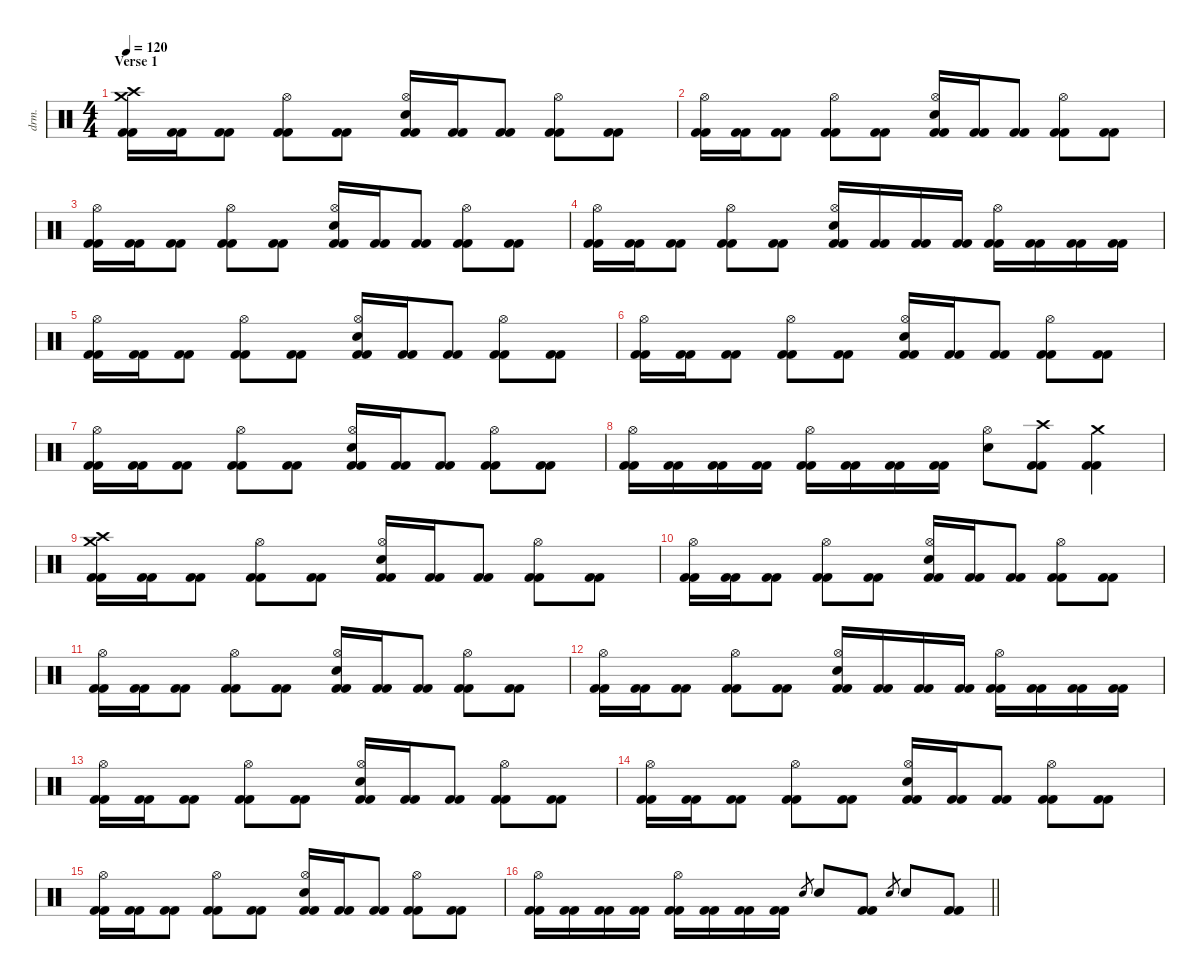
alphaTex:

\defaultSystemsLayout 4
\hideDynamics
\bracketExtendMode nobrackets
\otherSystemsTrackNameOrientation horizontal
\track ("Chris Adler" "drm.") {instrument percussion}
\staff {score}
\articulation defaults
\ts (4 4)
\section ("" "Verse 1")
\tempo 120
\clef neutral
\ks c
("Crash medium (hit)" "Crash high (hit)" "Kick (hit) 2" "Kick (hit) 2").16{dy f} ("Kick (hit) 2" "Kick (hit) 2").16 ("Kick (hit) 2" "Kick (hit) 2").8 ("Hi-Hat (open)" "Kick (hit) 2" "Kick (hit) 2").8 ("Kick (hit) 2" "Kick (hit) 2").8 ("Hi-Hat (open)" "Snare (hit) 2" "Kick (hit) 2" "Kick (hit) 2").16 ("Kick (hit) 2" "Kick (hit) 2").16 ("Kick (hit) 2" "Kick (hit) 2").8 ("Hi-Hat (open)" "Kick (hit) 2" "Kick (hit) 2").8 ("Kick (hit) 2" "Kick (hit) 2").8 |
("Hi-Hat (open)" "Kick (hit) 2" "Kick (hit) 2").16 ("Kick (hit) 2" "Kick (hit) 2").16 ("Kick (hit) 2" "Kick (hit) 2").8 ("Hi-Hat (open)" "Kick (hit) 2" "Kick (hit) 2").8 ("Kick (hit) 2" "Kick (hit) 2").8 ("Hi-Hat (open)" "Snare (hit) 2" "Kick (hit) 2" "Kick (hit) 2").16 ("Kick (hit) 2" "Kick (hit) 2").16 ("Kick (hit) 2" "Kick (hit) 2").8 ("Hi-Hat (open)" "Kick (hit) 2" "Kick (hit) 2").8 ("Kick (hit) 2" "Kick (hit) 2").8 |
("Hi-Hat (open)" "Kick (hit) 2" "Kick (hit) 2").16 ("Kick (hit) 2" "Kick (hit) 2").16 ("Kick (hit) 2" "Kick (hit) 2").8 ("Hi-Hat (open)" "Kick (hit) 2" "Kick (hit) 2").8 ("Kick (hit) 2" "Kick (hit) 2").8 ("Hi-Hat (open)" "Snare (hit) 2" "Kick (hit) 2" "Kick (hit) 2").16 ("Kick (hit) 2" "Kick (hit) 2").16 ("Kick (hit) 2" "Kick (hit) 2").8 ("Hi-Hat (open)" "Kick (hit) 2" "Kick (hit) 2").8 ("Kick (hit) 2" "Kick (hit) 2").8 |
("Hi-Hat (open)" "Kick (hit) 2" "Kick (hit) 2").16 ("Kick (hit) 2" "Kick (hit) 2").16 ("Kick (hit) 2" "Kick (hit) 2").8 ("Hi-Hat (open)" "Kick (hit) 2" "Kick (hit) 2").8 ("Kick (hit) 2" "Kick (hit) 2").8 ("Hi-Hat (open)" "Snare (hit) 2" "Kick (hit) 2" "Kick (hit) 2").16 ("Kick (hit) 2" "Kick (hit) 2").16 ("Kick (hit) 2" "Kick (hit) 2").16 ("Kick (hit) 2" "Kick (hit) 2").16 ("Hi-Hat (open)" "Kick (hit) 2" "Kick (hit) 2").16 ("Kick (hit) 2" "Kick (hit) 2").16 ("Kick (hit) 2" "Kick (hit) 2").16 ("Kick (hit) 2" "Kick (hit) 2").16 |
("Hi-Hat (open)" "Kick (hit) 2" "Kick (hit) 2").16 ("Kick (hit) 2" "Kick (hit) 2").16 ("Kick (hit) 2" "Kick (hit) 2").8 ("Hi-Hat (open)" "Kick (hit) 2" "Kick (hit) 2").8 ("Kick (hit) 2" "Kick (hit) 2").8 ("Hi-Hat (open)" "Snare (hit) 2" "Kick (hit) 2" "Kick (hit) 2").16 ("Kick (hit) 2" "Kick (hit) 2").16 ("Kick (hit) 2" "Kick (hit) 2").8 ("Hi-Hat (open)" "Kick (hit) 2" "Kick (hit) 2").8 ("Kick (hit) 2" "Kick (hit) 2").8 |
("Hi-Hat (open)" "Kick (hit) 2" "Kick (hit) 2").16 ("Kick (hit) 2" "Kick (hit) 2").16 ("Kick (hit) 2" "Kick (hit) 2").8 ("Hi-Hat (open)" "Kick (hit) 2" "Kick (hit) 2").8 ("Kick (hit) 2" "Kick (hit) 2").8 ("Hi-Hat (open)" "Snare (hit) 2" "Kick (hit) 2" "Kick (hit) 2").16 ("Kick (hit) 2" "Kick (hit) 2").16 ("Kick (hit) 2" "Kick (hit) 2").8 ("Hi-Hat (open)" "Kick (hit) 2" "Kick (hit) 2").8 ("Kick (hit) 2" "Kick (hit) 2").8 |
("Hi-Hat (open)" "Kick (hit) 2" "Kick (hit) 2").16 ("Kick (hit) 2" "Kick (hit) 2").16 ("Kick (hit) 2" "Kick (hit) 2").8 ("Hi-Hat (open)" "Kick (hit) 2" "Kick (hit) 2").8 ("Kick (hit) 2" "Kick (hit) 2").8 ("Hi-Hat (open)" "Snare (hit) 2" "Kick (hit) 2" "Kick (hit) 2").16 ("Kick (hit) 2" "Kick (hit) 2").16 ("Kick (hit) 2" "Kick (hit) 2").8 ("Hi-Hat (open)" "Kick (hit) 2" "Kick (hit) 2").8 ("Kick (hit) 2" "Kick (hit) 2").8 |
("Hi-Hat (open)" "Kick (hit) 2" "Kick (hit) 2").16 ("Kick (hit) 2" "Kick (hit) 2").16 ("Kick (hit) 2" "Kick (hit) 2").16 ("Kick (hit) 2" "Kick (hit) 2").16 ("Hi-Hat (open)" "Kick (hit) 2" "Kick (hit) 2").16 ("Kick (hit) 2" "Kick (hit) 2").16 ("Kick (hit) 2" "Kick (hit) 2").16 ("Kick (hit) 2" "Kick (hit) 2").16 ("Hi-Hat (open)" "Snare (hit) 2").8 ("Crash high (hit)" "Kick (hit) 2" "Kick (hit) 2").8 ("Crash medium (hit)" "Kick (hit) 2" "Kick (hit) 2").4 |
("Crash medium (hit)" "Crash high (hit)" "Kick (hit) 2" "Kick (hit) 2").16 ("Kick (hit) 2" "Kick (hit) 2").16 ("Kick (hit) 2" "Kick (hit) 2").8 ("Hi-Hat (open)" "Kick (hit) 2" "Kick (hit) 2").8 ("Kick (hit) 2" "Kick (hit) 2").8 ("Hi-Hat (open)" "Snare (hit) 2" "Kick (hit) 2" "Kick (hit) 2").16 ("Kick (hit) 2" "Kick (hit) 2").16 ("Kick (hit) 2" "Kick (hit) 2").8 ("Hi-Hat (open)" "Kick (hit) 2" "Kick (hit) 2").8 ("Kick (hit) 2" "Kick (hit) 2").8 |
("Hi-Hat (open)" "Kick (hit) 2" "Kick (hit) 2").16 ("Kick (hit) 2" "Kick (hit) 2").16 ("Kick (hit) 2" "Kick (hit) 2").8 ("Hi-Hat (open)" "Kick (hit) 2" "Kick (hit) 2").8 ("Kick (hit) 2" "Kick (hit) 2").8 ("Hi-Hat (open)" "Snare (hit) 2" "Kick (hit) 2" "Kick (hit) 2").16 ("Kick (hit) 2" "Kick (hit) 2").16 ("Kick (hit) 2" "Kick (hit) 2").8 ("Hi-Hat (open)" "Kick (hit) 2" "Kick (hit) 2").8 ("Kick (hit) 2" "Kick (hit) 2").8 |
("Hi-Hat (open)" "Kick (hit) 2" "Kick (hit) 2").16 ("Kick (hit) 2" "Kick (hit) 2").16 ("Kick (hit) 2" "Kick (hit) 2").8 ("Hi-Hat (open)" "Kick (hit) 2" "Kick (hit) 2").8 ("Kick (hit) 2" "Kick (hit) 2").8 ("Hi-Hat (open)" "Snare (hit) 2" "Kick (hit) 2" "Kick (hit) 2").16 ("Kick (hit) 2" "Kick (hit) 2").16 ("Kick (hit) 2" "Kick (hit) 2").8 ("Hi-Hat (open)" "Kick (hit) 2" "Kick (hit) 2").8 ("Kick (hit) 2" "Kick (hit) 2").8 |
("Hi-Hat (open)" "Kick (hit) 2" "Kick (hit) 2").16 ("Kick (hit) 2" "Kick (hit) 2").16 ("Kick (hit) 2" "Kick (hit) 2").8 ("Hi-Hat (open)" "Kick (hit) 2" "Kick (hit) 2").8 ("Kick (hit) 2" "Kick (hit) 2").8 ("Hi-Hat (open)" "Snare (hit) 2" "Kick (hit) 2" "Kick (hit) 2").16 ("Kick (hit) 2" "Kick (hit) 2").16 ("Kick (hit) 2" "Kick (hit) 2").16 ("Kick (hit) 2" "Kick (hit) 2").16 ("Hi-Hat (open)" "Kick (hit) 2" "Kick (hit) 2").16 ("Kick (hit) 2" "Kick (hit) 2").16 ("Kick (hit) 2" "Kick (hit) 2").16 ("Kick (hit) 2" "Kick (hit) 2").16 |
("Hi-Hat (open)" "Kick (hit) 2" "Kick (hit) 2").16 ("Kick (hit) 2" "Kick (hit) 2").16 ("Kick (hit) 2" "Kick (hit) 2").8 ("Hi-Hat (open)" "Kick (hit) 2" "Kick (hit) 2").8 ("Kick (hit) 2" "Kick (hit) 2").8 ("Hi-Hat (open)" "Snare (hit) 2" "Kick (hit) 2" "Kick (hit) 2").16 ("Kick (hit) 2" "Kick (hit) 2").16 ("Kick (hit) 2" "Kick (hit) 2").8 ("Hi-Hat (open)" "Kick (hit) 2" "Kick (hit) 2").8 ("Kick (hit) 2" "Kick (hit) 2").8 |
("Hi-Hat (open)" "Kick (hit) 2" "Kick (hit) 2").16 ("Kick (hit) 2" "Kick (hit) 2").16 ("Kick (hit) 2" "Kick (hit) 2").8 ("Hi-Hat (open)" "Kick (hit) 2" "Kick (hit) 2").8 ("Kick (hit) 2" "Kick (hit) 2").8 ("Hi-Hat (open)" "Snare (hit) 2" "Kick (hit) 2" "Kick (hit) 2").16 ("Kick (hit) 2" "Kick (hit) 2").16 ("Kick (hit) 2" "Kick (hit) 2").8 ("Hi-Hat (open)" "Kick (hit) 2" "Kick (hit) 2").8 ("Kick (hit) 2" "Kick (hit) 2").8 |
("Hi-Hat (open)" "Kick (hit) 2" "Kick (hit) 2").16 ("Kick (hit) 2" "Kick (hit) 2").16 ("Kick (hit) 2" "Kick (hit) 2").8 ("Hi-Hat (open)" "Kick (hit) 2" "Kick (hit) 2").8 ("Kick (hit) 2" "Kick (hit) 2").8 ("Hi-Hat (open)" "Snare (hit) 2" "Kick (hit) 2" "Kick (hit) 2").16 ("Kick (hit) 2" "Kick (hit) 2").16 ("Kick (hit) 2" "Kick (hit) 2").8 ("Hi-Hat (open)" "Kick (hit) 2" "Kick (hit) 2").8 ("Kick (hit) 2" "Kick (hit) 2").8 |
\barLineRight lightlight
("Hi-Hat (open)" "Kick (hit) 2" "Kick (hit) 2").16 ("Kick (hit) 2" "Kick (hit) 2").16 ("Kick (hit) 2" "Kick (hit) 2").16 ("Kick (hit) 2" "Kick (hit) 2").16 ("Hi-Hat (open)" "Kick (hit) 2" "Kick (hit) 2").16 ("Kick (hit) 2" "Kick (hit) 2").16 ("Kick (hit) 2" "Kick (hit) 2").16 ("Kick (hit) 2" "Kick (hit) 2").16 "Electric Snare (hit)".8{gr dy mf} "Snare (hit) 2".8{dy f} ("Kick (hit) 2" "Kick (hit) 2").8 "Electric Snare (hit)".8{gr dy mf} "Snare (hit) 2".8{dy f} ("Kick (hit) 2" "Kick (hit) 2").8
